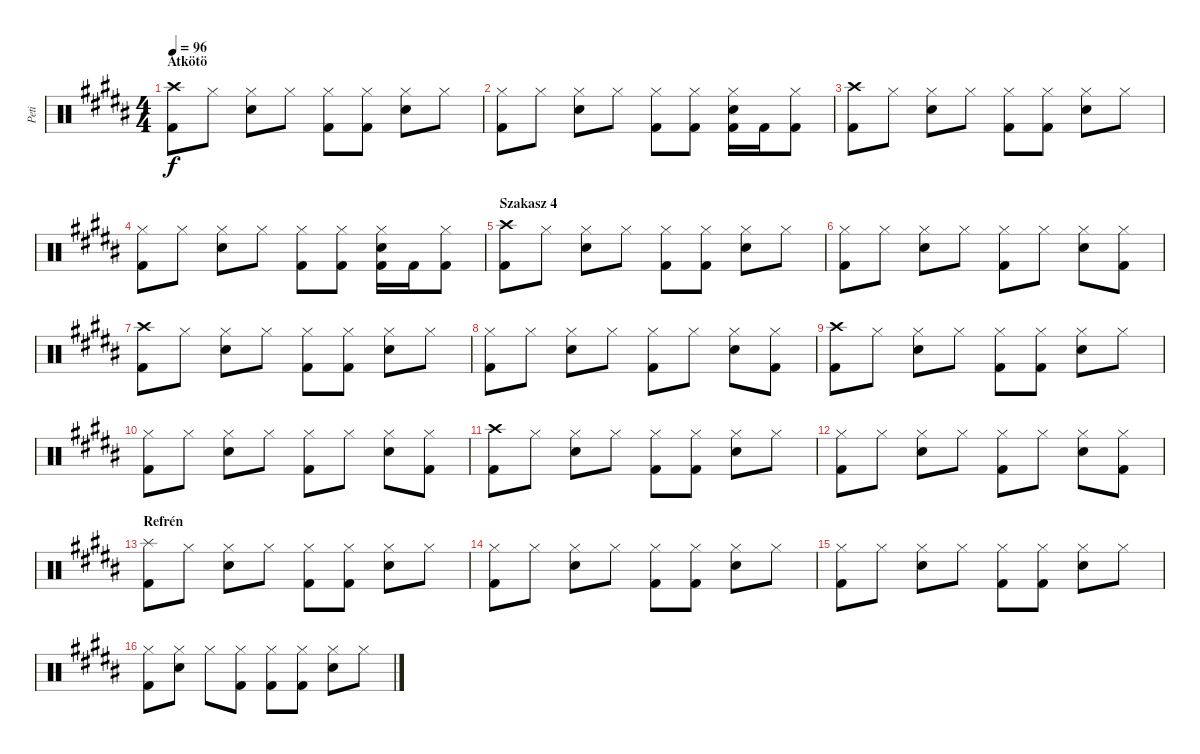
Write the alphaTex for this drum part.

\track ("Peti" "Peti") {instrument percussion}
\staff {score}
\articulation defaults
\ts (4 4)
\section ("" "Átkötö")
\tempo 96
\clef neutral
\ks g#minor
("Crash high (hit)" "Kick (hit) 2").8{dy f} "Hi-Hat (closed)".8 ("Hi-Hat (closed)" "Snare (hit) 2").8 "Hi-Hat (closed)".8 ("Hi-Hat (closed)" "Kick (hit) 2").8 ("Hi-Hat (closed)" "Kick (hit) 2").8 ("Hi-Hat (closed)" "Snare (hit) 2").8 "Hi-Hat (closed)".8 |
("Hi-Hat (closed)" "Kick (hit) 2").8 "Hi-Hat (closed)".8 ("Hi-Hat (closed)" "Snare (hit) 2").8 "Hi-Hat (closed)".8 ("Hi-Hat (closed)" "Kick (hit) 2").8 ("Hi-Hat (closed)" "Kick (hit) 2").8 ("Hi-Hat (closed)" "Snare (hit) 2" "Kick (hit) 2").16 "Kick (hit) 2".16 ("Hi-Hat (closed)" "Kick (hit) 2").8 |
("Crash high (hit)" "Kick (hit) 2").8 "Hi-Hat (closed)".8 ("Hi-Hat (closed)" "Snare (hit) 2").8 "Hi-Hat (closed)".8 ("Hi-Hat (closed)" "Kick (hit) 2").8 ("Hi-Hat (closed)" "Kick (hit) 2").8 ("Hi-Hat (closed)" "Snare (hit) 2").8 "Hi-Hat (closed)".8 |
("Hi-Hat (closed)" "Kick (hit) 2").8 "Hi-Hat (closed)".8 ("Hi-Hat (closed)" "Snare (hit) 2").8 "Hi-Hat (closed)".8 ("Hi-Hat (closed)" "Kick (hit) 2").8 ("Hi-Hat (closed)" "Kick (hit) 2").8 ("Hi-Hat (closed)" "Snare (hit) 2" "Kick (hit) 2").16 "Kick (hit) 2".16 ("Hi-Hat (closed)" "Kick (hit) 2").8 |
\section ("" "Szakasz 4")
("Crash high (hit)" "Kick (hit) 2").8 "Hi-Hat (closed)".8 ("Hi-Hat (closed)" "Snare (hit) 2").8 "Hi-Hat (closed)".8 ("Hi-Hat (closed)" "Kick (hit) 2").8 ("Hi-Hat (closed)" "Kick (hit) 2").8 ("Hi-Hat (closed)" "Snare (hit) 2").8 "Hi-Hat (closed)".8 |
("Hi-Hat (closed)" "Kick (hit) 2").8 "Hi-Hat (closed)".8 ("Hi-Hat (closed)" "Snare (hit) 2").8 "Hi-Hat (closed)".8 ("Hi-Hat (closed)" "Kick (hit) 2").8 "Hi-Hat (closed)".8 ("Hi-Hat (closed)" "Snare (hit) 2").8 ("Hi-Hat (closed)" "Kick (hit) 2").8 |
("Crash high (hit)" "Kick (hit) 2").8 "Hi-Hat (closed)".8 ("Hi-Hat (closed)" "Snare (hit) 2").8 "Hi-Hat (closed)".8 ("Hi-Hat (closed)" "Kick (hit) 2").8 ("Hi-Hat (closed)" "Kick (hit) 2").8 ("Hi-Hat (closed)" "Snare (hit) 2").8 "Hi-Hat (closed)".8 |
("Hi-Hat (closed)" "Kick (hit) 2").8 "Hi-Hat (closed)".8 ("Hi-Hat (closed)" "Snare (hit) 2").8 "Hi-Hat (closed)".8 ("Hi-Hat (closed)" "Kick (hit) 2").8 "Hi-Hat (closed)".8 ("Hi-Hat (closed)" "Snare (hit) 2").8 ("Hi-Hat (closed)" "Kick (hit) 2").8 |
("Crash high (hit)" "Kick (hit) 2").8 "Hi-Hat (closed)".8 ("Hi-Hat (closed)" "Snare (hit) 2").8 "Hi-Hat (closed)".8 ("Hi-Hat (closed)" "Kick (hit) 2").8 ("Hi-Hat (closed)" "Kick (hit) 2").8 ("Hi-Hat (closed)" "Snare (hit) 2").8 "Hi-Hat (closed)".8 |
("Hi-Hat (closed)" "Kick (hit) 2").8 "Hi-Hat (closed)".8 ("Hi-Hat (closed)" "Snare (hit) 2").8 "Hi-Hat (closed)".8 ("Hi-Hat (closed)" "Kick (hit) 2").8 "Hi-Hat (closed)".8 ("Hi-Hat (closed)" "Snare (hit) 2").8 ("Hi-Hat (closed)" "Kick (hit) 2").8 |
("Crash high (hit)" "Kick (hit) 2").8 "Hi-Hat (closed)".8 ("Hi-Hat (closed)" "Snare (hit) 2").8 "Hi-Hat (closed)".8 ("Hi-Hat (closed)" "Kick (hit) 2").8 ("Hi-Hat (closed)" "Kick (hit) 2").8 ("Hi-Hat (closed)" "Snare (hit) 2").8 "Hi-Hat (closed)".8 |
("Hi-Hat (closed)" "Kick (hit) 2").8 "Hi-Hat (closed)".8 ("Hi-Hat (closed)" "Snare (hit) 2").8 "Hi-Hat (closed)".8 ("Hi-Hat (closed)" "Kick (hit) 2").8 "Hi-Hat (closed)".8 ("Hi-Hat (closed)" "Snare (hit) 2").8 ("Hi-Hat (closed)" "Kick (hit) 2").8 |
\section ("" "Refrén")
("Splash (hit)" "Kick (hit) 2").8 "Hi-Hat (closed)".8 ("Hi-Hat (closed)" "Snare (hit) 2").8 "Hi-Hat (closed)".8 ("Hi-Hat (closed)" "Kick (hit) 2").8 ("Hi-Hat (closed)" "Kick (hit) 2").8 ("Hi-Hat (closed)" "Snare (hit) 2").8 "Hi-Hat (closed)".8 |
("Hi-Hat (closed)" "Kick (hit) 2").8 "Hi-Hat (closed)".8 ("Hi-Hat (closed)" "Snare (hit) 2").8 "Hi-Hat (closed)".8 ("Hi-Hat (closed)" "Kick (hit) 2").8 ("Hi-Hat (closed)" "Kick (hit) 2").8 ("Hi-Hat (closed)" "Snare (hit) 2").8 "Hi-Hat (closed)".8 |
("Hi-Hat (closed)" "Kick (hit) 2").8 "Hi-Hat (closed)".8 ("Hi-Hat (closed)" "Snare (hit) 2").8 "Hi-Hat (closed)".8 ("Hi-Hat (closed)" "Kick (hit) 2").8 ("Hi-Hat (closed)" "Kick (hit) 2").8 ("Hi-Hat (closed)" "Snare (hit) 2").8 "Hi-Hat (closed)".8 |
("Hi-Hat (closed)" "Kick (hit) 2").8 ("Hi-Hat (closed)" "Snare (hit) 2").8 "Hi-Hat (closed)".8 ("Hi-Hat (closed)" "Kick (hit) 2").8 ("Hi-Hat (closed)" "Kick (hit) 2").8 ("Hi-Hat (closed)" "Kick (hit) 2").8 ("Hi-Hat (closed)" "Snare (hit) 2").8 "Hi-Hat (closed)".8
